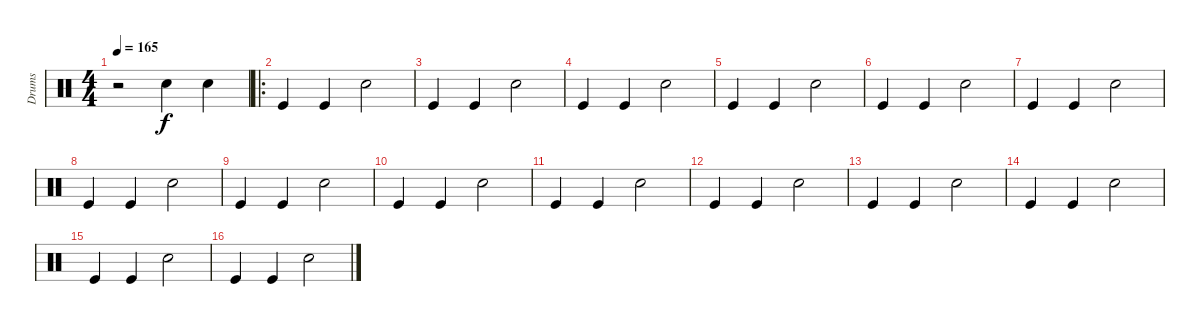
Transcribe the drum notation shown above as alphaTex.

\track ("Drums" "Drums") {instrument percussion}
\staff {score}
\articulation defaults
\ts (4 4)
\tempo 165
\clef neutral
\ks c
r.2{dy f} "Snare (hit) 2".4 "Snare (hit) 2".4 |
\ro "Kick (hit)".4 "Kick (hit)".4 "Snare (hit) 2".2
|
"Kick (hit)".4 "Kick (hit)".4 "Snare (hit) 2".2 |
"Kick (hit)".4 "Kick (hit)".4 "Snare (hit) 2".2 |
"Kick (hit)".4 "Kick (hit)".4 "Snare (hit) 2".2 |
"Kick (hit)".4 "Kick (hit)".4 "Snare (hit) 2".2 |
"Kick (hit)".4 "Kick (hit)".4 "Snare (hit) 2".2 |
"Kick (hit)".4 "Kick (hit)".4 "Snare (hit) 2".2 |
"Kick (hit)".4 "Kick (hit)".4 "Snare (hit) 2".2 |
"Kick (hit)".4 "Kick (hit)".4 "Snare (hit) 2".2 |
"Kick (hit)".4 "Kick (hit)".4 "Snare (hit) 2".2 |
"Kick (hit)".4 "Kick (hit)".4 "Snare (hit) 2".2 |
"Kick (hit)".4 "Kick (hit)".4 "Snare (hit) 2".2 |
"Kick (hit)".4 "Kick (hit)".4 "Snare (hit) 2".2 |
"Kick (hit)".4 "Kick (hit)".4 "Snare (hit) 2".2 |
"Kick (hit)".4 "Kick (hit)".4 "Snare (hit) 2".2
